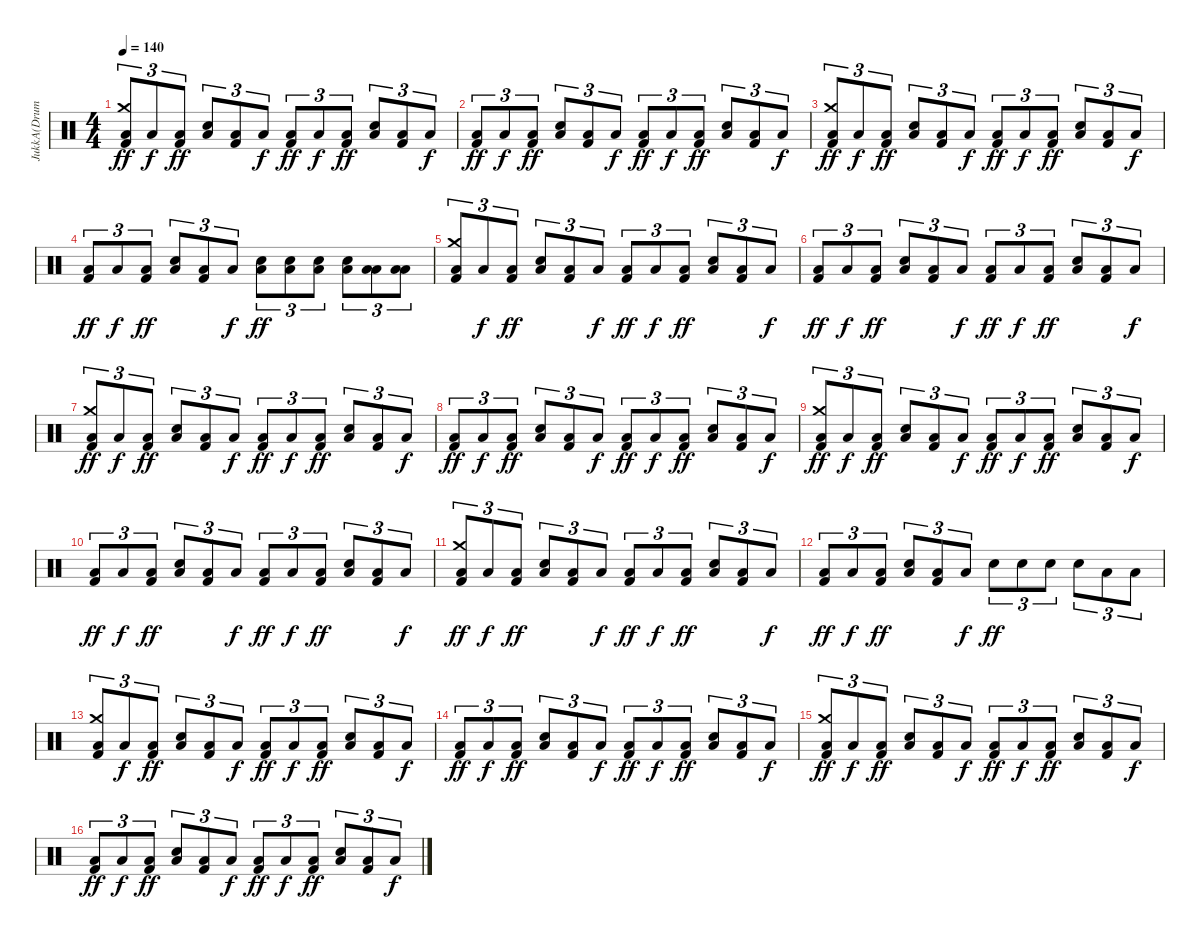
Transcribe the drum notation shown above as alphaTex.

\track ("JukkA(Drums)" "JukkA(Drum") {instrument percussion}
\staff {score}
\articulation defaults
\ts (4 4)
\tempo 140
\clef neutral
\ks c
("Kick (hit) 2" "Crash medium (hit)" "Low Floor Tom (hit)").8{tu (3 2) dy ff} "Low Floor Tom (hit)".8{tu (3 2) dy f} ("Kick (hit) 2" "Low Floor Tom (hit)").8{tu (3 2) dy ff} ("Snare (hit) 2" "Low Floor Tom (hit)").8{tu (3 2)} ("Kick (hit) 2" "Low Floor Tom (hit)").8{tu (3 2)} "Low Floor Tom (hit)".8{tu (3 2) dy f} ("Kick (hit) 2" "Low Floor Tom (hit)").8{tu (3 2) dy ff} "Low Floor Tom (hit)".8{tu (3 2) dy f} ("Kick (hit) 2" "Low Floor Tom (hit)").8{tu (3 2) dy ff} ("Snare (hit) 2" "Low Floor Tom (hit)").8{tu (3 2)} ("Kick (hit) 2" "Low Floor Tom (hit)").8{tu (3 2)} "Low Floor Tom (hit)".8{tu (3 2) dy f} |
("Kick (hit) 2" "Low Floor Tom (hit)").8{tu (3 2) dy ff} "Low Floor Tom (hit)".8{tu (3 2) dy f} ("Kick (hit) 2" "Low Floor Tom (hit)").8{tu (3 2) dy ff} ("Snare (hit) 2" "Low Floor Tom (hit)").8{tu (3 2)} ("Kick (hit) 2" "Low Floor Tom (hit)").8{tu (3 2)} "Low Floor Tom (hit)".8{tu (3 2) dy f} ("Kick (hit) 2" "Low Floor Tom (hit)").8{tu (3 2) dy ff} "Low Floor Tom (hit)".8{tu (3 2) dy f} ("Kick (hit) 2" "Low Floor Tom (hit)").8{tu (3 2) dy ff} ("Snare (hit) 2" "Low Floor Tom (hit)").8{tu (3 2)} ("Kick (hit) 2" "Low Floor Tom (hit)").8{tu (3 2)} "Low Floor Tom (hit)".8{tu (3 2) dy f} |
("Kick (hit) 2" "Crash medium (hit)" "Low Floor Tom (hit)").8{tu (3 2) dy ff} "Low Floor Tom (hit)".8{tu (3 2) dy f} ("Kick (hit) 2" "Low Floor Tom (hit)").8{tu (3 2) dy ff} ("Snare (hit) 2" "Low Floor Tom (hit)").8{tu (3 2)} ("Kick (hit) 2" "Low Floor Tom (hit)").8{tu (3 2)} "Low Floor Tom (hit)".8{tu (3 2) dy f} ("Kick (hit) 2" "Low Floor Tom (hit)").8{tu (3 2) dy ff} "Low Floor Tom (hit)".8{tu (3 2) dy f} ("Kick (hit) 2" "Low Floor Tom (hit)").8{tu (3 2) dy ff} ("Snare (hit) 2" "Low Floor Tom (hit)").8{tu (3 2)} ("Kick (hit) 2" "Low Floor Tom (hit)").8{tu (3 2)} "Low Floor Tom (hit)".8{tu (3 2) dy f} |
("Kick (hit) 2" "Low Floor Tom (hit)").8{tu (3 2) dy ff} "Low Floor Tom (hit)".8{tu (3 2) dy f} ("Kick (hit) 2" "Low Floor Tom (hit)").8{tu (3 2) dy ff} ("Snare (hit) 2" "Low Floor Tom (hit)").8{tu (3 2)} ("Kick (hit) 2" "Low Floor Tom (hit)").8{tu (3 2)} "Low Floor Tom (hit)".8{tu (3 2) dy f} ("Snare (hit) 2" "Low Floor Tom (hit)").8{tu (3 2) dy ff} ("Snare (hit) 2" "Low Floor Tom (hit)").8{tu (3 2)} ("Snare (hit) 2" "Low Floor Tom (hit)").8{tu (3 2)} ("Snare (hit) 2" "Low Floor Tom (hit)").8{tu (3 2)} ("Low Tom (hit)" "Low Floor Tom (hit)").8{tu (3 2)} ("Low Floor Tom (hit)" "Low Floor Tom (hit)").8{tu (3 2)} |
("Kick (hit) 2" "Crash medium (hit)" "Low Floor Tom (hit)").8{tu (3 2)} "Low Floor Tom (hit)".8{tu (3 2) dy f} ("Kick (hit) 2" "Low Floor Tom (hit)").8{tu (3 2) dy ff} ("Snare (hit) 2" "Low Floor Tom (hit)").8{tu (3 2)} ("Kick (hit) 2" "Low Floor Tom (hit)").8{tu (3 2)} "Low Floor Tom (hit)".8{tu (3 2) dy f} ("Kick (hit) 2" "Low Floor Tom (hit)").8{tu (3 2) dy ff} "Low Floor Tom (hit)".8{tu (3 2) dy f} ("Kick (hit) 2" "Low Floor Tom (hit)").8{tu (3 2) dy ff} ("Snare (hit) 2" "Low Floor Tom (hit)").8{tu (3 2)} ("Kick (hit) 2" "Low Floor Tom (hit)").8{tu (3 2)} "Low Floor Tom (hit)".8{tu (3 2) dy f} |
("Kick (hit) 2" "Low Floor Tom (hit)").8{tu (3 2) dy ff} "Low Floor Tom (hit)".8{tu (3 2) dy f} ("Kick (hit) 2" "Low Floor Tom (hit)").8{tu (3 2) dy ff} ("Snare (hit) 2" "Low Floor Tom (hit)").8{tu (3 2)} ("Kick (hit) 2" "Low Floor Tom (hit)").8{tu (3 2)} "Low Floor Tom (hit)".8{tu (3 2) dy f} ("Kick (hit) 2" "Low Floor Tom (hit)").8{tu (3 2) dy ff} "Low Floor Tom (hit)".8{tu (3 2) dy f} ("Kick (hit) 2" "Low Floor Tom (hit)").8{tu (3 2) dy ff} ("Snare (hit) 2" "Low Floor Tom (hit)").8{tu (3 2)} ("Kick (hit) 2" "Low Floor Tom (hit)").8{tu (3 2)} "Low Floor Tom (hit)".8{tu (3 2) dy f} |
("Kick (hit) 2" "Crash medium (hit)" "Low Floor Tom (hit)").8{tu (3 2) dy ff} "Low Floor Tom (hit)".8{tu (3 2) dy f} ("Kick (hit) 2" "Low Floor Tom (hit)").8{tu (3 2) dy ff} ("Snare (hit) 2" "Low Floor Tom (hit)").8{tu (3 2)} ("Kick (hit) 2" "Low Floor Tom (hit)").8{tu (3 2)} "Low Floor Tom (hit)".8{tu (3 2) dy f} ("Kick (hit) 2" "Low Floor Tom (hit)").8{tu (3 2) dy ff} "Low Floor Tom (hit)".8{tu (3 2) dy f} ("Kick (hit) 2" "Low Floor Tom (hit)").8{tu (3 2) dy ff} ("Snare (hit) 2" "Low Floor Tom (hit)").8{tu (3 2)} ("Kick (hit) 2" "Low Floor Tom (hit)").8{tu (3 2)} "Low Floor Tom (hit)".8{tu (3 2) dy f} |
("Kick (hit) 2" "Low Floor Tom (hit)").8{tu (3 2) dy ff} "Low Floor Tom (hit)".8{tu (3 2) dy f} ("Kick (hit) 2" "Low Floor Tom (hit)").8{tu (3 2) dy ff} ("Snare (hit) 2" "Low Floor Tom (hit)").8{tu (3 2)} ("Kick (hit) 2" "Low Floor Tom (hit)").8{tu (3 2)} "Low Floor Tom (hit)".8{tu (3 2) dy f} ("Kick (hit) 2" "Low Floor Tom (hit)").8{tu (3 2) dy ff} "Low Floor Tom (hit)".8{tu (3 2) dy f} ("Kick (hit) 2" "Low Floor Tom (hit)").8{tu (3 2) dy ff} ("Snare (hit) 2" "Low Floor Tom (hit)").8{tu (3 2)} ("Kick (hit) 2" "Low Floor Tom (hit)").8{tu (3 2)} "Low Floor Tom (hit)".8{tu (3 2) dy f} |
("Kick (hit) 2" "Crash medium (hit)" "Low Floor Tom (hit)").8{tu (3 2) dy ff} "Low Floor Tom (hit)".8{tu (3 2) dy f} ("Kick (hit) 2" "Low Floor Tom (hit)").8{tu (3 2) dy ff} ("Snare (hit) 2" "Low Floor Tom (hit)").8{tu (3 2)} ("Kick (hit) 2" "Low Floor Tom (hit)").8{tu (3 2)} "Low Floor Tom (hit)".8{tu (3 2) dy f} ("Kick (hit) 2" "Low Floor Tom (hit)").8{tu (3 2) dy ff} "Low Floor Tom (hit)".8{tu (3 2) dy f} ("Kick (hit) 2" "Low Floor Tom (hit)").8{tu (3 2) dy ff} ("Snare (hit) 2" "Low Floor Tom (hit)").8{tu (3 2)} ("Kick (hit) 2" "Low Floor Tom (hit)").8{tu (3 2)} "Low Floor Tom (hit)".8{tu (3 2) dy f} |
("Kick (hit) 2" "Low Floor Tom (hit)").8{tu (3 2) dy ff} "Low Floor Tom (hit)".8{tu (3 2) dy f} ("Kick (hit) 2" "Low Floor Tom (hit)").8{tu (3 2) dy ff} ("Snare (hit) 2" "Low Floor Tom (hit)").8{tu (3 2)} ("Kick (hit) 2" "Low Floor Tom (hit)").8{tu (3 2)} "Low Floor Tom (hit)".8{tu (3 2) dy f} ("Kick (hit) 2" "Low Floor Tom (hit)").8{tu (3 2) dy ff} "Low Floor Tom (hit)".8{tu (3 2) dy f} ("Kick (hit) 2" "Low Floor Tom (hit)").8{tu (3 2) dy ff} ("Snare (hit) 2" "Low Floor Tom (hit)").8{tu (3 2)} ("Kick (hit) 2" "Low Floor Tom (hit)").8{tu (3 2)} "Low Floor Tom (hit)".8{tu (3 2) dy f} |
("Kick (hit) 2" "Crash medium (hit)" "Low Floor Tom (hit)").8{tu (3 2) dy ff} "Low Floor Tom (hit)".8{tu (3 2) dy f} ("Kick (hit) 2" "Low Floor Tom (hit)").8{tu (3 2) dy ff} ("Snare (hit) 2" "Low Floor Tom (hit)").8{tu (3 2)} ("Kick (hit) 2" "Low Floor Tom (hit)").8{tu (3 2)} "Low Floor Tom (hit)".8{tu (3 2) dy f} ("Kick (hit) 2" "Low Floor Tom (hit)").8{tu (3 2) dy ff} "Low Floor Tom (hit)".8{tu (3 2) dy f} ("Kick (hit) 2" "Low Floor Tom (hit)").8{tu (3 2) dy ff} ("Snare (hit) 2" "Low Floor Tom (hit)").8{tu (3 2)} ("Kick (hit) 2" "Low Floor Tom (hit)").8{tu (3 2)} "Low Floor Tom (hit)".8{tu (3 2) dy f} |
("Kick (hit) 2" "Low Floor Tom (hit)").8{tu (3 2) dy ff} "Low Floor Tom (hit)".8{tu (3 2) dy f} ("Kick (hit) 2" "Low Floor Tom (hit)").8{tu (3 2) dy ff} ("Snare (hit) 2" "Low Floor Tom (hit)").8{tu (3 2)} ("Kick (hit) 2" "Low Floor Tom (hit)").8{tu (3 2)} "Low Floor Tom (hit)".8{tu (3 2) dy f} "Snare (hit) 2".8{tu (3 2) dy ff} "Snare (hit) 2".8{tu (3 2)} "Snare (hit) 2".8{tu (3 2)} "Snare (hit) 2".8{tu (3 2)} "Low Tom (hit)".8{tu (3 2)} "Low Floor Tom (hit)".8{tu (3 2)} |
("Kick (hit) 2" "Crash medium (hit)" "Low Floor Tom (hit)").8{tu (3 2)} "Low Floor Tom (hit)".8{tu (3 2) dy f} ("Kick (hit) 2" "Low Floor Tom (hit)").8{tu (3 2) dy ff} ("Snare (hit) 2" "Low Floor Tom (hit)").8{tu (3 2)} ("Kick (hit) 2" "Low Floor Tom (hit)").8{tu (3 2)} "Low Floor Tom (hit)".8{tu (3 2) dy f} ("Kick (hit) 2" "Low Floor Tom (hit)").8{tu (3 2) dy ff} "Low Floor Tom (hit)".8{tu (3 2) dy f} ("Kick (hit) 2" "Low Floor Tom (hit)").8{tu (3 2) dy ff} ("Snare (hit) 2" "Low Floor Tom (hit)").8{tu (3 2)} ("Kick (hit) 2" "Low Floor Tom (hit)").8{tu (3 2)} "Low Floor Tom (hit)".8{tu (3 2) dy f} |
("Kick (hit) 2" "Low Floor Tom (hit)").8{tu (3 2) dy ff} "Low Floor Tom (hit)".8{tu (3 2) dy f} ("Kick (hit) 2" "Low Floor Tom (hit)").8{tu (3 2) dy ff} ("Snare (hit) 2" "Low Floor Tom (hit)").8{tu (3 2)} ("Kick (hit) 2" "Low Floor Tom (hit)").8{tu (3 2)} "Low Floor Tom (hit)".8{tu (3 2) dy f} ("Kick (hit) 2" "Low Floor Tom (hit)").8{tu (3 2) dy ff} "Low Floor Tom (hit)".8{tu (3 2) dy f} ("Kick (hit) 2" "Low Floor Tom (hit)").8{tu (3 2) dy ff} ("Snare (hit) 2" "Low Floor Tom (hit)").8{tu (3 2)} ("Kick (hit) 2" "Low Floor Tom (hit)").8{tu (3 2)} "Low Floor Tom (hit)".8{tu (3 2) dy f} |
("Kick (hit) 2" "Crash medium (hit)" "Low Floor Tom (hit)").8{tu (3 2) dy ff} "Low Floor Tom (hit)".8{tu (3 2) dy f} ("Kick (hit) 2" "Low Floor Tom (hit)").8{tu (3 2) dy ff} ("Snare (hit) 2" "Low Floor Tom (hit)").8{tu (3 2)} ("Kick (hit) 2" "Low Floor Tom (hit)").8{tu (3 2)} "Low Floor Tom (hit)".8{tu (3 2) dy f} ("Kick (hit) 2" "Low Floor Tom (hit)").8{tu (3 2) dy ff} "Low Floor Tom (hit)".8{tu (3 2) dy f} ("Kick (hit) 2" "Low Floor Tom (hit)").8{tu (3 2) dy ff} ("Snare (hit) 2" "Low Floor Tom (hit)").8{tu (3 2)} ("Kick (hit) 2" "Low Floor Tom (hit)").8{tu (3 2)} "Low Floor Tom (hit)".8{tu (3 2) dy f} |
("Kick (hit) 2" "Low Floor Tom (hit)").8{tu (3 2) dy ff} "Low Floor Tom (hit)".8{tu (3 2) dy f} ("Kick (hit) 2" "Low Floor Tom (hit)").8{tu (3 2) dy ff} ("Snare (hit) 2" "Low Floor Tom (hit)").8{tu (3 2)} ("Kick (hit) 2" "Low Floor Tom (hit)").8{tu (3 2)} "Low Floor Tom (hit)".8{tu (3 2) dy f} ("Kick (hit) 2" "Low Floor Tom (hit)").8{tu (3 2) dy ff} "Low Floor Tom (hit)".8{tu (3 2) dy f} ("Kick (hit) 2" "Low Floor Tom (hit)").8{tu (3 2) dy ff} ("Snare (hit) 2" "Low Floor Tom (hit)").8{tu (3 2)} ("Kick (hit) 2" "Low Floor Tom (hit)").8{tu (3 2)} "Low Floor Tom (hit)".8{tu (3 2) dy f}
